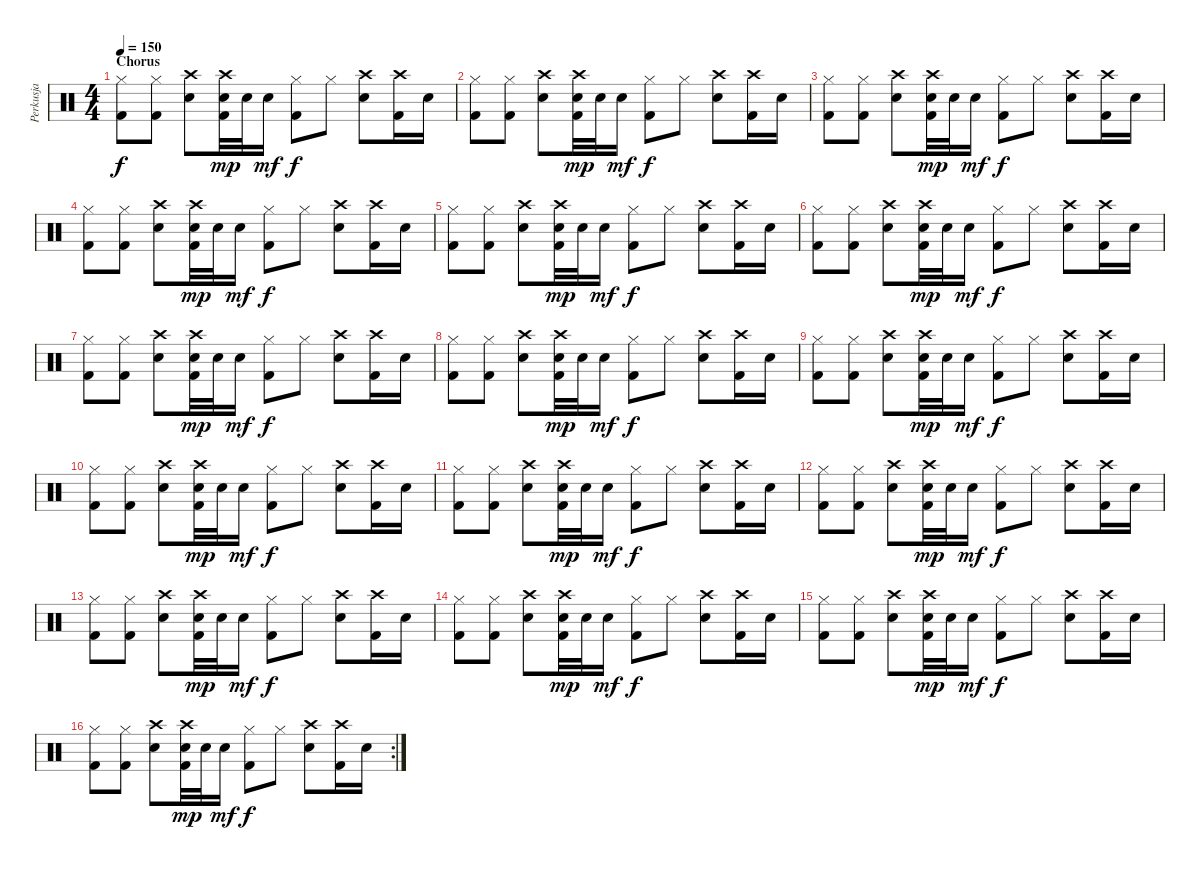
\track ("Perkusja" "Perkusja") {instrument percussion}
\staff {score}
\articulation defaults
\ts (4 4)
\section ("" "Chorus")
\tempo 150
\clef neutral
\ks c
("Hi-Hat (closed)" "Kick (hit) 2").8{dy f} ("Hi-Hat (closed)" "Kick (hit) 2").8 ("Crash high (hit)" "Electric Snare (hit)").8 ("Crash high (hit)" "Electric Snare (hit)" "Kick (hit) 2").32{dy mp} "Electric Snare (hit)".32 "Electric Snare (hit)".16{dy mf} ("Hi-Hat (closed)" "Kick (hit) 2").8{dy f} "Hi-Hat (closed)".8 ("Crash high (hit)" "Electric Snare (hit)").8 ("Crash high (hit)" "Kick (hit) 2").16 "Electric Snare (hit)".16 |
("Hi-Hat (closed)" "Kick (hit) 2").8 ("Hi-Hat (closed)" "Kick (hit) 2").8 ("Crash high (hit)" "Electric Snare (hit)").8 ("Crash high (hit)" "Electric Snare (hit)" "Kick (hit) 2").32{dy mp} "Electric Snare (hit)".32 "Electric Snare (hit)".16{dy mf} ("Hi-Hat (closed)" "Kick (hit) 2").8{dy f} "Hi-Hat (closed)".8 ("Crash high (hit)" "Electric Snare (hit)").8 ("Crash high (hit)" "Kick (hit) 2").16 "Electric Snare (hit)".16 |
("Hi-Hat (closed)" "Kick (hit) 2").8 ("Hi-Hat (closed)" "Kick (hit) 2").8 ("Crash high (hit)" "Electric Snare (hit)").8 ("Crash high (hit)" "Electric Snare (hit)" "Kick (hit) 2").32{dy mp} "Electric Snare (hit)".32 "Electric Snare (hit)".16{dy mf} ("Hi-Hat (closed)" "Kick (hit) 2").8{dy f} "Hi-Hat (closed)".8 ("Crash high (hit)" "Electric Snare (hit)").8 ("Crash high (hit)" "Kick (hit) 2").16 "Electric Snare (hit)".16 |
("Hi-Hat (closed)" "Kick (hit) 2").8 ("Hi-Hat (closed)" "Kick (hit) 2").8 ("Crash high (hit)" "Electric Snare (hit)").8 ("Crash high (hit)" "Electric Snare (hit)" "Kick (hit) 2").32{dy mp} "Electric Snare (hit)".32 "Electric Snare (hit)".16{dy mf} ("Hi-Hat (closed)" "Kick (hit) 2").8{dy f} "Hi-Hat (closed)".8 ("Crash high (hit)" "Electric Snare (hit)").8 ("Crash high (hit)" "Kick (hit) 2").16 "Electric Snare (hit)".16 |
("Hi-Hat (closed)" "Kick (hit) 2").8 ("Hi-Hat (closed)" "Kick (hit) 2").8 ("Crash high (hit)" "Electric Snare (hit)").8 ("Crash high (hit)" "Electric Snare (hit)" "Kick (hit) 2").32{dy mp} "Electric Snare (hit)".32 "Electric Snare (hit)".16{dy mf} ("Hi-Hat (closed)" "Kick (hit) 2").8{dy f} "Hi-Hat (closed)".8 ("Crash high (hit)" "Electric Snare (hit)").8 ("Crash high (hit)" "Kick (hit) 2").16 "Electric Snare (hit)".16 |
("Hi-Hat (closed)" "Kick (hit) 2").8 ("Hi-Hat (closed)" "Kick (hit) 2").8 ("Crash high (hit)" "Electric Snare (hit)").8 ("Crash high (hit)" "Electric Snare (hit)" "Kick (hit) 2").32{dy mp} "Electric Snare (hit)".32 "Electric Snare (hit)".16{dy mf} ("Hi-Hat (closed)" "Kick (hit) 2").8{dy f} "Hi-Hat (closed)".8 ("Crash high (hit)" "Electric Snare (hit)").8 ("Crash high (hit)" "Kick (hit) 2").16 "Electric Snare (hit)".16 |
("Hi-Hat (closed)" "Kick (hit) 2").8 ("Hi-Hat (closed)" "Kick (hit) 2").8 ("Crash high (hit)" "Electric Snare (hit)").8 ("Crash high (hit)" "Electric Snare (hit)" "Kick (hit) 2").32{dy mp} "Electric Snare (hit)".32 "Electric Snare (hit)".16{dy mf} ("Hi-Hat (closed)" "Kick (hit) 2").8{dy f} "Hi-Hat (closed)".8 ("Crash high (hit)" "Electric Snare (hit)").8 ("Crash high (hit)" "Kick (hit) 2").16 "Electric Snare (hit)".16 |
("Hi-Hat (closed)" "Kick (hit) 2").8 ("Hi-Hat (closed)" "Kick (hit) 2").8 ("Crash high (hit)" "Electric Snare (hit)").8 ("Crash high (hit)" "Electric Snare (hit)" "Kick (hit) 2").32{dy mp} "Electric Snare (hit)".32 "Electric Snare (hit)".16{dy mf} ("Hi-Hat (closed)" "Kick (hit) 2").8{dy f} "Hi-Hat (closed)".8 ("Crash high (hit)" "Electric Snare (hit)").8 ("Crash high (hit)" "Kick (hit) 2").16 "Electric Snare (hit)".16 |
("Hi-Hat (closed)" "Kick (hit) 2").8 ("Hi-Hat (closed)" "Kick (hit) 2").8 ("Crash high (hit)" "Electric Snare (hit)").8 ("Crash high (hit)" "Electric Snare (hit)" "Kick (hit) 2").32{dy mp} "Electric Snare (hit)".32 "Electric Snare (hit)".16{dy mf} ("Hi-Hat (closed)" "Kick (hit) 2").8{dy f} "Hi-Hat (closed)".8 ("Crash high (hit)" "Electric Snare (hit)").8 ("Crash high (hit)" "Kick (hit) 2").16 "Electric Snare (hit)".16 |
("Hi-Hat (closed)" "Kick (hit) 2").8 ("Hi-Hat (closed)" "Kick (hit) 2").8 ("Crash high (hit)" "Electric Snare (hit)").8 ("Crash high (hit)" "Electric Snare (hit)" "Kick (hit) 2").32{dy mp} "Electric Snare (hit)".32 "Electric Snare (hit)".16{dy mf} ("Hi-Hat (closed)" "Kick (hit) 2").8{dy f} "Hi-Hat (closed)".8 ("Crash high (hit)" "Electric Snare (hit)").8 ("Crash high (hit)" "Kick (hit) 2").16 "Electric Snare (hit)".16 |
("Hi-Hat (closed)" "Kick (hit) 2").8 ("Hi-Hat (closed)" "Kick (hit) 2").8 ("Crash high (hit)" "Electric Snare (hit)").8 ("Crash high (hit)" "Electric Snare (hit)" "Kick (hit) 2").32{dy mp} "Electric Snare (hit)".32 "Electric Snare (hit)".16{dy mf} ("Hi-Hat (closed)" "Kick (hit) 2").8{dy f} "Hi-Hat (closed)".8 ("Crash high (hit)" "Electric Snare (hit)").8 ("Crash high (hit)" "Kick (hit) 2").16 "Electric Snare (hit)".16 |
("Hi-Hat (closed)" "Kick (hit) 2").8 ("Hi-Hat (closed)" "Kick (hit) 2").8 ("Crash high (hit)" "Electric Snare (hit)").8 ("Crash high (hit)" "Electric Snare (hit)" "Kick (hit) 2").32{dy mp} "Electric Snare (hit)".32 "Electric Snare (hit)".16{dy mf} ("Hi-Hat (closed)" "Kick (hit) 2").8{dy f} "Hi-Hat (closed)".8 ("Crash high (hit)" "Electric Snare (hit)").8 ("Crash high (hit)" "Kick (hit) 2").16 "Electric Snare (hit)".16 |
("Hi-Hat (closed)" "Kick (hit) 2").8 ("Hi-Hat (closed)" "Kick (hit) 2").8 ("Crash high (hit)" "Electric Snare (hit)").8 ("Crash high (hit)" "Electric Snare (hit)" "Kick (hit) 2").32{dy mp} "Electric Snare (hit)".32 "Electric Snare (hit)".16{dy mf} ("Hi-Hat (closed)" "Kick (hit) 2").8{dy f} "Hi-Hat (closed)".8 ("Crash high (hit)" "Electric Snare (hit)").8 ("Crash high (hit)" "Kick (hit) 2").16 "Electric Snare (hit)".16 |
("Hi-Hat (closed)" "Kick (hit) 2").8 ("Hi-Hat (closed)" "Kick (hit) 2").8 ("Crash high (hit)" "Electric Snare (hit)").8 ("Crash high (hit)" "Electric Snare (hit)" "Kick (hit) 2").32{dy mp} "Electric Snare (hit)".32 "Electric Snare (hit)".16{dy mf} ("Hi-Hat (closed)" "Kick (hit) 2").8{dy f} "Hi-Hat (closed)".8 ("Crash high (hit)" "Electric Snare (hit)").8 ("Crash high (hit)" "Kick (hit) 2").16 "Electric Snare (hit)".16 |
("Hi-Hat (closed)" "Kick (hit) 2").8 ("Hi-Hat (closed)" "Kick (hit) 2").8 ("Crash high (hit)" "Electric Snare (hit)").8 ("Crash high (hit)" "Electric Snare (hit)" "Kick (hit) 2").32{dy mp} "Electric Snare (hit)".32 "Electric Snare (hit)".16{dy mf} ("Hi-Hat (closed)" "Kick (hit) 2").8{dy f} "Hi-Hat (closed)".8 ("Crash high (hit)" "Electric Snare (hit)").8 ("Crash high (hit)" "Kick (hit) 2").16 "Electric Snare (hit)".16 |
\rc 2
("Hi-Hat (closed)" "Kick (hit) 2").8 ("Hi-Hat (closed)" "Kick (hit) 2").8 ("Crash high (hit)" "Electric Snare (hit)").8 ("Crash high (hit)" "Electric Snare (hit)" "Kick (hit) 2").32{dy mp} "Electric Snare (hit)".32 "Electric Snare (hit)".16{dy mf} ("Hi-Hat (closed)" "Kick (hit) 2").8{dy f} "Hi-Hat (closed)".8 ("Crash high (hit)" "Electric Snare (hit)").8 ("Crash high (hit)" "Kick (hit) 2").16 "Electric Snare (hit)".16
